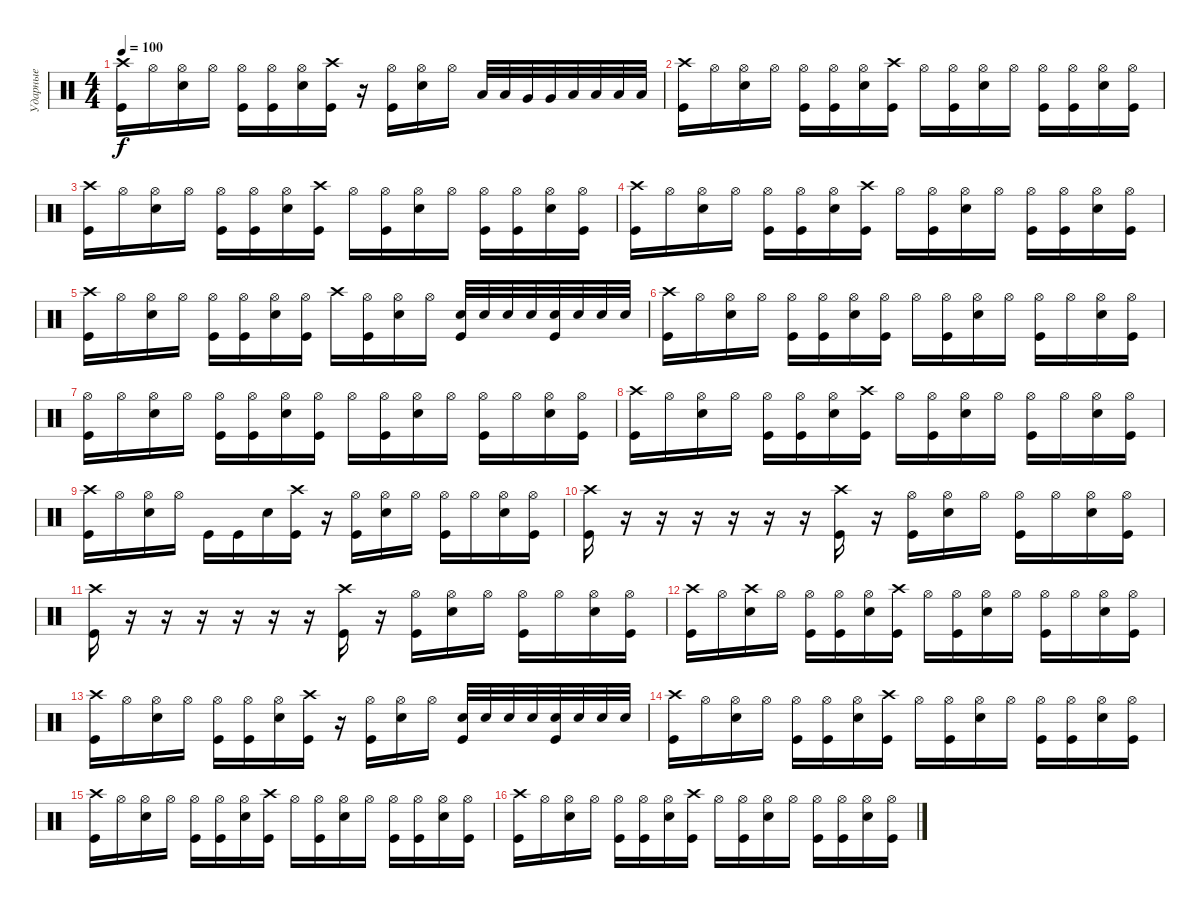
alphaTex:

\track ("Ударные" "Ударные") {instrument percussion}
\staff {score}
\articulation defaults
\ts (4 4)
\tempo 100
\clef neutral
\ks c
("Crash high (hit)" "Kick (hit)").16{dy f} "Hi-Hat (open)".16 ("Hi-Hat (open)" "Snare (hit) 2").16 "Hi-Hat (open)".16 ("Hi-Hat (open)" "Kick (hit)").16 ("Hi-Hat (open)" "Kick (hit)").16 ("Hi-Hat (open)" "Snare (hit) 2").16 ("Crash high (hit)" "Kick (hit)").16 r.16 ("Hi-Hat (open)" "Kick (hit)").16 ("Hi-Hat (open)" "Snare (hit) 2").16 "Hi-Hat (open)".16 "Low Tom (hit)".32 "Low Tom (hit)".32 "Very Low Tom (hit)".32 "Very Low Tom (hit)".32 "Low Floor Tom (hit)".32 "Low Floor Tom (hit)".32 "Low Floor Tom (hit)".32 "Low Floor Tom (hit)".32 |
("Crash high (hit)" "Kick (hit)").16 "Hi-Hat (open)".16 ("Hi-Hat (open)" "Snare (hit) 2").16 "Hi-Hat (open)".16 ("Hi-Hat (open)" "Kick (hit)").16 ("Hi-Hat (open)" "Kick (hit)").16 ("Hi-Hat (open)" "Snare (hit) 2").16 ("Crash high (hit)" "Kick (hit)").16 "Hi-Hat (open)".16 ("Hi-Hat (open)" "Kick (hit)").16 ("Hi-Hat (open)" "Snare (hit) 2").16 "Hi-Hat (open)".16 ("Hi-Hat (open)" "Kick (hit)").16 ("Hi-Hat (open)" "Kick (hit)").16 ("Hi-Hat (open)" "Snare (hit) 2").16 ("Hi-Hat (open)" "Kick (hit)").16 |
("Crash high (hit)" "Kick (hit)").16 "Hi-Hat (open)".16 ("Hi-Hat (open)" "Snare (hit) 2").16 "Hi-Hat (open)".16 ("Hi-Hat (open)" "Kick (hit)").16 ("Hi-Hat (open)" "Kick (hit)").16 ("Hi-Hat (open)" "Snare (hit) 2").16 ("Crash high (hit)" "Kick (hit)").16 "Hi-Hat (open)".16 ("Hi-Hat (open)" "Kick (hit)").16 ("Hi-Hat (open)" "Snare (hit) 2").16 "Hi-Hat (open)".16 ("Hi-Hat (open)" "Kick (hit)").16 ("Hi-Hat (open)" "Kick (hit)").16 ("Hi-Hat (open)" "Snare (hit) 2").16 ("Hi-Hat (open)" "Kick (hit)").16 |
("Crash high (hit)" "Kick (hit)").16 "Hi-Hat (open)".16 ("Hi-Hat (open)" "Snare (hit) 2").16 "Hi-Hat (open)".16 ("Hi-Hat (open)" "Kick (hit)").16 ("Hi-Hat (open)" "Kick (hit)").16 ("Hi-Hat (open)" "Snare (hit) 2").16 ("Crash high (hit)" "Kick (hit)").16 "Hi-Hat (open)".16 ("Hi-Hat (open)" "Kick (hit)").16 ("Hi-Hat (open)" "Snare (hit) 2").16 "Hi-Hat (open)".16 ("Hi-Hat (open)" "Kick (hit)").16 ("Hi-Hat (open)" "Kick (hit)").16 ("Hi-Hat (open)" "Snare (hit) 2").16 ("Hi-Hat (open)" "Kick (hit)").16 |
("Crash high (hit)" "Kick (hit)").16 "Hi-Hat (open)".16 ("Hi-Hat (open)" "Snare (hit) 2").16 "Hi-Hat (open)".16 ("Hi-Hat (open)" "Kick (hit)").16 ("Hi-Hat (open)" "Kick (hit)").16 ("Hi-Hat (open)" "Snare (hit) 2").16 ("Hi-Hat (open)" "Kick (hit)").16 "Crash high (hit)".16 ("Hi-Hat (open)" "Kick (hit)").16 ("Hi-Hat (open)" "Snare (hit) 2").16 "Hi-Hat (open)".16 ("Kick (hit)" "Snare (hit) 2").32 "Snare (hit) 2".32 "Snare (hit) 2".32 "Snare (hit) 2".32 ("Kick (hit)" "Snare (hit) 2").32 "Snare (hit) 2".32 "Snare (hit) 2".32 "Snare (hit) 2".32 |
("Crash high (hit)" "Kick (hit)").16 "Hi-Hat (open)".16 ("Hi-Hat (open)" "Snare (hit) 2").16 "Hi-Hat (open)".16 ("Hi-Hat (open)" "Kick (hit)").16 ("Hi-Hat (open)" "Kick (hit)").16 ("Hi-Hat (open)" "Snare (hit) 2").16 ("Hi-Hat (open)" "Kick (hit)").16 "Hi-Hat (open)".16 ("Hi-Hat (open)" "Kick (hit)").16 ("Hi-Hat (open)" "Snare (hit) 2").16 "Hi-Hat (open)".16 ("Hi-Hat (open)" "Kick (hit)").16 "Hi-Hat (open)".16 ("Hi-Hat (open)" "Snare (hit) 2").16 ("Hi-Hat (open)" "Kick (hit)").16 |
("Hi-Hat (open)" "Kick (hit)").16 "Hi-Hat (open)".16 ("Hi-Hat (open)" "Snare (hit) 2").16 "Hi-Hat (open)".16 ("Hi-Hat (open)" "Kick (hit)").16 ("Hi-Hat (open)" "Kick (hit)").16 ("Hi-Hat (open)" "Snare (hit) 2").16 ("Hi-Hat (open)" "Kick (hit)").16 "Hi-Hat (open)".16 ("Hi-Hat (open)" "Kick (hit)").16 ("Hi-Hat (open)" "Snare (hit) 2").16 "Hi-Hat (open)".16 ("Hi-Hat (open)" "Kick (hit)").16 "Hi-Hat (open)".16 ("Hi-Hat (open)" "Snare (hit) 2").16 ("Hi-Hat (open)" "Kick (hit)").16 |
("Crash high (hit)" "Kick (hit)").16 "Hi-Hat (open)".16 ("Hi-Hat (open)" "Snare (hit) 2").16 "Hi-Hat (open)".16 ("Hi-Hat (open)" "Kick (hit)").16 ("Hi-Hat (open)" "Kick (hit)").16 ("Hi-Hat (open)" "Snare (hit) 2").16 ("Crash high (hit)" "Kick (hit)").16 "Hi-Hat (open)".16 ("Hi-Hat (open)" "Kick (hit)").16 ("Hi-Hat (open)" "Snare (hit) 2").16 "Hi-Hat (open)".16 ("Hi-Hat (open)" "Kick (hit)").16 "Hi-Hat (open)".16 ("Hi-Hat (open)" "Snare (hit) 2").16 ("Hi-Hat (open)" "Kick (hit)").16 |
("Crash high (hit)" "Kick (hit)").16 "Hi-Hat (open)".16 ("Hi-Hat (open)" "Snare (hit) 2").16 "Hi-Hat (open)".16 "Kick (hit)".16 "Kick (hit)".16 "Snare (hit) 2".16 ("Crash high (hit)" "Kick (hit)").16 r.16 ("Hi-Hat (open)" "Kick (hit)").16 ("Hi-Hat (open)" "Snare (hit) 2").16 "Hi-Hat (open)".16 ("Hi-Hat (open)" "Kick (hit)").16 "Hi-Hat (open)".16 ("Hi-Hat (open)" "Snare (hit) 2").16 ("Hi-Hat (open)" "Kick (hit)").16 |
("Crash high (hit)" "Kick (hit)").16 r.16 r.16 r.16 r.16 r.16 r.16 ("Crash high (hit)" "Kick (hit)").16 r.16 ("Hi-Hat (open)" "Kick (hit)").16 ("Hi-Hat (open)" "Snare (hit) 2").16 "Hi-Hat (open)".16 ("Hi-Hat (open)" "Kick (hit)").16 "Hi-Hat (open)".16 ("Hi-Hat (open)" "Snare (hit) 2").16 ("Hi-Hat (open)" "Kick (hit)").16 |
("Crash high (hit)" "Kick (hit)").16 r.16 r.16 r.16 r.16 r.16 r.16 ("Crash high (hit)" "Kick (hit)").16 r.16 ("Hi-Hat (open)" "Kick (hit)").16 ("Hi-Hat (open)" "Snare (hit) 2").16 "Hi-Hat (open)".16 ("Hi-Hat (open)" "Kick (hit)").16 "Hi-Hat (open)".16 ("Hi-Hat (open)" "Snare (hit) 2").16 ("Hi-Hat (open)" "Kick (hit)").16 |
("Crash high (hit)" "Kick (hit)").16 "Hi-Hat (open)".16 ("Crash high (hit)" "Snare (hit) 2").16 "Hi-Hat (open)".16 ("Hi-Hat (open)" "Kick (hit)").16 ("Hi-Hat (open)" "Kick (hit)").16 ("Hi-Hat (open)" "Snare (hit) 2").16 ("Crash high (hit)" "Kick (hit)").16 "Hi-Hat (open)".16 ("Hi-Hat (open)" "Kick (hit)").16 ("Hi-Hat (open)" "Snare (hit) 2").16 "Hi-Hat (open)".16 ("Hi-Hat (open)" "Kick (hit)").16 "Hi-Hat (open)".16 ("Hi-Hat (open)" "Snare (hit) 2").16 ("Hi-Hat (open)" "Kick (hit)").16 |
("Crash high (hit)" "Kick (hit)").16 "Hi-Hat (open)".16 ("Hi-Hat (open)" "Snare (hit) 2").16 "Hi-Hat (open)".16 ("Hi-Hat (open)" "Kick (hit)").16 ("Hi-Hat (open)" "Kick (hit)").16 ("Hi-Hat (open)" "Snare (hit) 2").16 ("Crash high (hit)" "Kick (hit)").16 r.16 ("Hi-Hat (open)" "Kick (hit)").16 ("Hi-Hat (open)" "Snare (hit) 2").16 "Hi-Hat (open)".16 ("Snare (hit) 2" "Kick (hit)").32 "Snare (hit) 2".32 "Snare (hit) 2".32 "Snare (hit) 2".32 ("Snare (hit) 2" "Kick (hit)").32 "Snare (hit) 2".32 "Snare (hit) 2".32 "Snare (hit) 2".32 |
("Crash high (hit)" "Kick (hit)").16 "Hi-Hat (open)".16 ("Hi-Hat (open)" "Snare (hit) 2").16 "Hi-Hat (open)".16 ("Hi-Hat (open)" "Kick (hit)").16 ("Hi-Hat (open)" "Kick (hit)").16 ("Hi-Hat (open)" "Snare (hit) 2").16 ("Crash high (hit)" "Kick (hit)").16 "Hi-Hat (open)".16 ("Hi-Hat (open)" "Kick (hit)").16 ("Hi-Hat (open)" "Snare (hit) 2").16 "Hi-Hat (open)".16 ("Hi-Hat (open)" "Kick (hit)").16 ("Hi-Hat (open)" "Kick (hit)").16 ("Hi-Hat (open)" "Snare (hit) 2").16 ("Hi-Hat (open)" "Kick (hit)").16 |
("Crash high (hit)" "Kick (hit)").16 "Hi-Hat (open)".16 ("Hi-Hat (open)" "Snare (hit) 2").16 "Hi-Hat (open)".16 ("Hi-Hat (open)" "Kick (hit)").16 ("Hi-Hat (open)" "Kick (hit)").16 ("Hi-Hat (open)" "Snare (hit) 2").16 ("Crash high (hit)" "Kick (hit)").16 "Hi-Hat (open)".16 ("Hi-Hat (open)" "Kick (hit)").16 ("Hi-Hat (open)" "Snare (hit) 2").16 "Hi-Hat (open)".16 ("Hi-Hat (open)" "Kick (hit)").16 ("Hi-Hat (open)" "Kick (hit)").16 ("Hi-Hat (open)" "Snare (hit) 2").16 ("Hi-Hat (open)" "Kick (hit)").16 |
("Crash high (hit)" "Kick (hit)").16 "Hi-Hat (open)".16 ("Hi-Hat (open)" "Snare (hit) 2").16 "Hi-Hat (open)".16 ("Hi-Hat (open)" "Kick (hit)").16 ("Hi-Hat (open)" "Kick (hit)").16 ("Hi-Hat (open)" "Snare (hit) 2").16 ("Crash high (hit)" "Kick (hit)").16 "Hi-Hat (open)".16 ("Hi-Hat (open)" "Kick (hit)").16 ("Hi-Hat (open)" "Snare (hit) 2").16 "Hi-Hat (open)".16 ("Hi-Hat (open)" "Kick (hit)").16 ("Hi-Hat (open)" "Kick (hit)").16 ("Hi-Hat (open)" "Snare (hit) 2").16 ("Hi-Hat (open)" "Kick (hit)").16
